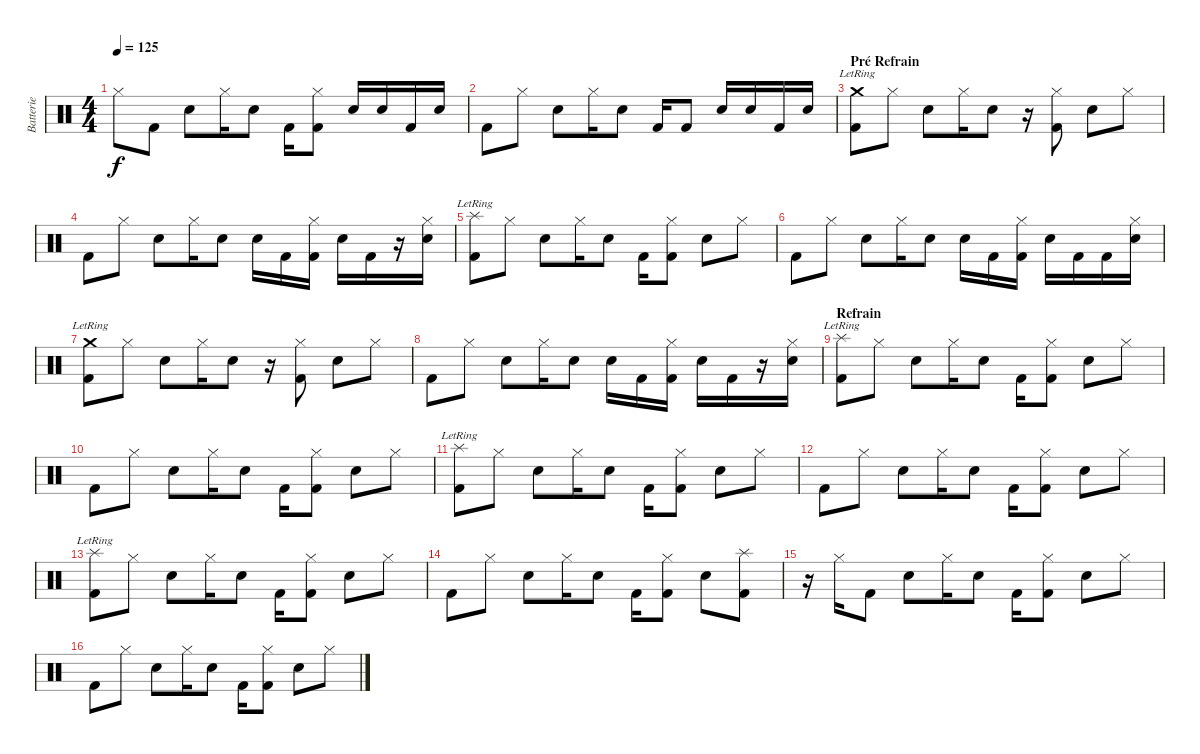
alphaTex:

\track ("Batterie" "Batterie") {instrument percussion}
\staff {score}
\articulation defaults
\ts (4 4)
\tempo 125
\clef neutral
\ks c "Hi-Hat (closed)".8{dy f} "Kick (hit) 2".8 "Electric Snare (hit)".8 "Hi-Hat (closed)".16 "Electric Snare (hit)".8 "Kick (hit) 2".16
("Hi-Hat (closed)" "Kick (hit) 2").8 "Electric Snare (hit)".16 "Electric Snare (hit)".16 "Kick (hit) 2".16 "Electric Snare (hit)".16 |
"Kick (hit) 2".8 "Hi-Hat (closed)".8 "Electric Snare (hit)".8 "Hi-Hat (closed)".16 "Electric Snare (hit)".8 "Kick (hit) 2".16 "Kick (hit) 2".8 "Electric Snare (hit)".16 "Electric Snare (hit)".16 "Kick (hit) 2".16 "Electric Snare (hit)".16 |
\section ("" "Pré Refrain")
("Crash medium (hit)"{lr} "Kick (hit) 2").8 "Hi-Hat (closed)".8 "Electric Snare (hit)".8 "Hi-Hat (closed)".16 "Electric Snare (hit)".8 r.16 ("Hi-Hat (closed)" "Kick (hit) 2").8 "Electric Snare (hit)".8 "Hi-Hat (closed)".8 |
"Kick (hit) 2".8 "Hi-Hat (closed)".8 "Electric Snare (hit)".8 "Hi-Hat (closed)".16 "Electric Snare (hit)".8 "Electric Snare (hit)".16 "Kick (hit) 2".16 ("Hi-Hat (closed)" "Kick (hit) 2").16 "Electric Snare (hit)".16 "Kick (hit) 2".16 r.16 ("Electric Snare (hit)" "Hi-Hat (closed)").16 |
("Splash (hit)"{lr} "Kick (hit) 2").8 "Hi-Hat (closed)".8 "Electric Snare (hit)".8 "Hi-Hat (closed)".16 "Electric Snare (hit)".8 "Kick (hit) 2".16 ("Hi-Hat (closed)" "Kick (hit) 2").8 "Electric Snare (hit)".8 "Hi-Hat (closed)".8 |
"Kick (hit) 2".8 "Hi-Hat (closed)".8 "Electric Snare (hit)".8 "Hi-Hat (closed)".16 "Electric Snare (hit)".8 "Electric Snare (hit)".16 "Kick (hit) 2".16 ("Hi-Hat (closed)" "Kick (hit) 2").16 "Electric Snare (hit)".16 "Kick (hit) 2".16 "Kick (hit) 2".16 ("Electric Snare (hit)" "Hi-Hat (closed)").16 |
("Crash medium (hit)"{lr} "Kick (hit) 2").8 "Hi-Hat (closed)".8 "Electric Snare (hit)".8 "Hi-Hat (closed)".16 "Electric Snare (hit)".8 r.16 ("Hi-Hat (closed)" "Kick (hit) 2").8 "Electric Snare (hit)".8 "Hi-Hat (closed)".8 |
"Kick (hit) 2".8 "Hi-Hat (closed)".8 "Electric Snare (hit)".8 "Hi-Hat (closed)".16 "Electric Snare (hit)".8 "Electric Snare (hit)".16 "Kick (hit) 2".16 ("Hi-Hat (closed)" "Kick (hit) 2").16 "Electric Snare (hit)".16 "Kick (hit) 2".16 r.16 ("Electric Snare (hit)" "Hi-Hat (closed)").16 |
\section ("" "Refrain")
("Splash (hit)"{lr} "Kick (hit) 2").8 "Hi-Hat (closed)".8 "Electric Snare (hit)".8 "Hi-Hat (closed)".16 "Electric Snare (hit)".8 "Kick (hit) 2".16 ("Hi-Hat (closed)" "Kick (hit) 2").8 "Electric Snare (hit)".8 "Hi-Hat (closed)".8 |
"Kick (hit) 2".8 "Hi-Hat (closed)".8 "Electric Snare (hit)".8 "Hi-Hat (closed)".16 "Electric Snare (hit)".8 "Kick (hit) 2".16 ("Hi-Hat (closed)" "Kick (hit) 2").8 "Electric Snare (hit)".8 "Hi-Hat (closed)".8 |
("Splash (hit)"{lr} "Kick (hit) 2").8 "Hi-Hat (closed)".8 "Electric Snare (hit)".8 "Hi-Hat (closed)".16 "Electric Snare (hit)".8 "Kick (hit) 2".16 ("Hi-Hat (closed)" "Kick (hit) 2").8 "Electric Snare (hit)".8 "Hi-Hat (closed)".8 |
"Kick (hit) 2".8 "Hi-Hat (closed)".8 "Electric Snare (hit)".8 "Hi-Hat (closed)".16 "Electric Snare (hit)".8 "Kick (hit) 2".16 ("Hi-Hat (closed)" "Kick (hit) 2").8 "Electric Snare (hit)".8 "Hi-Hat (closed)".8 |
("Splash (hit)"{lr} "Kick (hit) 2").8 "Hi-Hat (closed)".8 "Electric Snare (hit)".8 "Hi-Hat (closed)".16 "Electric Snare (hit)".8 "Kick (hit) 2".16 ("Hi-Hat (closed)" "Kick (hit) 2").8 "Electric Snare (hit)".8 "Hi-Hat (closed)".8 |
"Kick (hit) 2".8 "Hi-Hat (closed)".8 "Electric Snare (hit)".8 "Hi-Hat (closed)".16 "Electric Snare (hit)".8 "Kick (hit) 2".16 ("Hi-Hat (closed)" "Kick (hit) 2").8 "Electric Snare (hit)".8 ("Splash (hit)" "Kick (hit) 2").8 |
r.16 "Hi-Hat (closed)".16 "Kick (hit) 2".8 "Electric Snare (hit)".8 "Hi-Hat (closed)".16 "Electric Snare (hit)".8 "Kick (hit) 2".16 ("Hi-Hat (closed)" "Kick (hit) 2").8 "Electric Snare (hit)".8 "Hi-Hat (closed)".8 |
"Kick (hit) 2".8 "Hi-Hat (closed)".8 "Electric Snare (hit)".8 "Hi-Hat (closed)".16 "Electric Snare (hit)".8 "Kick (hit) 2".16 ("Hi-Hat (closed)" "Kick (hit) 2").8 "Electric Snare (hit)".8 "Hi-Hat (closed)".8
